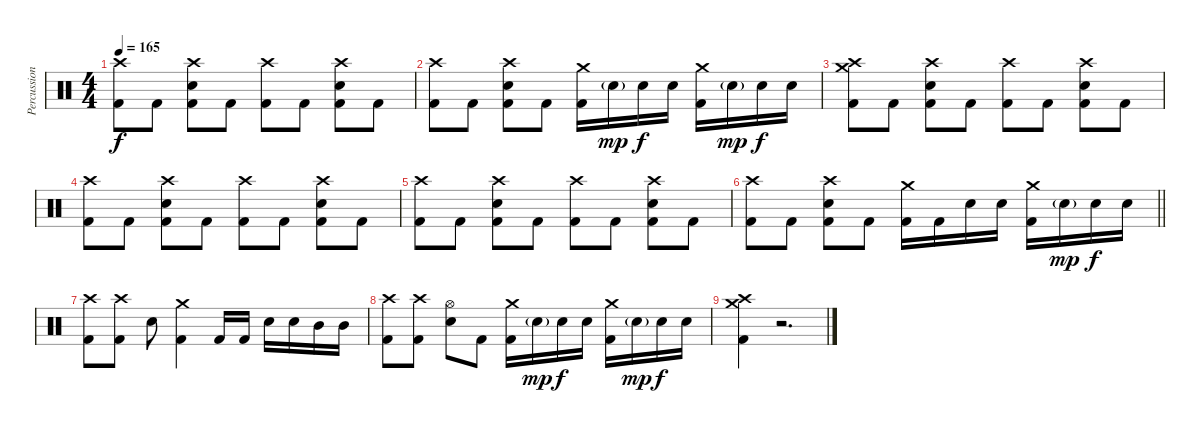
\track ("Percussion" "Percussion") {instrument percussion}
\staff {score}
\articulation defaults
\ts (4 4)
\tempo 165
\clef neutral
\ks c
("Crash high (hit)" "Kick (hit) 2").8{dy f} "Kick (hit) 2".8 ("Crash high (hit)" "Snare (hit) 2" "Kick (hit) 2").8 "Kick (hit) 2".8 ("Crash high (hit)" "Kick (hit) 2").8 "Kick (hit) 2".8 ("Crash high (hit)" "Snare (hit) 2" "Kick (hit) 2").8 "Kick (hit) 2".8 |
("Crash high (hit)" "Kick (hit) 2").8 "Kick (hit) 2".8 ("Crash high (hit)" "Snare (hit) 2" "Kick (hit) 2").8 "Kick (hit) 2".8 ("Crash medium (hit)" "Kick (hit) 2").16 "Snare (hit) 2"{g}.16{dy mp} "Snare (hit) 2".16{dy f} "Snare (hit) 2".16 ("Crash medium (hit)" "Kick (hit) 2").16 "Snare (hit) 2"{g}.16{dy mp} "Snare (hit) 2".16{dy f} "Snare (hit) 2".16 |
("Crash high (hit)" "Crash medium (hit)" "Kick (hit) 2").8 "Kick (hit) 2".8 ("Crash high (hit)" "Snare (hit) 2" "Kick (hit) 2").8 "Kick (hit) 2".8 ("Crash high (hit)" "Kick (hit) 2").8 "Kick (hit) 2".8 ("Crash high (hit)" "Snare (hit) 2" "Kick (hit) 2").8 "Kick (hit) 2".8 |
("Crash high (hit)" "Kick (hit) 2").8 "Kick (hit) 2".8 ("Crash high (hit)" "Snare (hit) 2" "Kick (hit) 2").8 "Kick (hit) 2".8 ("Crash high (hit)" "Kick (hit) 2").8 "Kick (hit) 2".8 ("Crash high (hit)" "Snare (hit) 2" "Kick (hit) 2").8 "Kick (hit) 2".8 |
("Crash high (hit)" "Kick (hit) 2").8 "Kick (hit) 2".8 ("Crash high (hit)" "Snare (hit) 2" "Kick (hit) 2").8 "Kick (hit) 2".8 ("Crash high (hit)" "Kick (hit) 2").8 "Kick (hit) 2".8 ("Crash high (hit)" "Snare (hit) 2" "Kick (hit) 2").8 "Kick (hit) 2".8 |
\barLineRight lightlight
("Crash high (hit)" "Kick (hit) 2").8 "Kick (hit) 2".8 ("Crash high (hit)" "Snare (hit) 2" "Kick (hit) 2").8 "Kick (hit) 2".8 ("Crash medium (hit)" "Kick (hit) 2").16 "Kick (hit) 2".16 "Snare (hit) 2".16 "Snare (hit) 2".16 ("Crash medium (hit)" "Kick (hit) 2").16 "Snare (hit) 2"{g}.16{dy mp} "Snare (hit) 2".16{dy f} "Snare (hit) 2".16 |
("Crash high (hit)" "Kick (hit) 2").8 ("Crash high (hit)" "Kick (hit) 2").8 "Snare (hit) 2".8 ("Crash medium (hit)" "Kick (hit) 2").4 "Kick (hit) 2".16 "Kick (hit) 2".16 "Snare (hit) 2".16 "Snare (hit) 2".16 "Mid Tom (hit)".16 "Mid Tom (hit)".16 |
("Crash high (hit)" "Kick (hit) 2").8 ("Crash high (hit)" "Kick (hit) 2").8 ("Hi-Hat (open)" "Snare (hit) 2").8 "Kick (hit) 2".8 ("Crash medium (hit)" "Kick (hit) 2").16 "Snare (hit) 2"{g}.16{dy mp} "Snare (hit) 2".16{dy f} "Snare (hit) 2".16 ("Crash medium (hit)" "Kick (hit) 2").16 "Snare (hit) 2"{g}.16{dy mp} "Snare (hit) 2".16{dy f} "Snare (hit) 2".16 |
("Crash high (hit)" "Crash medium (hit)" "Kick (hit) 2").4 r.2{d volume 0}
